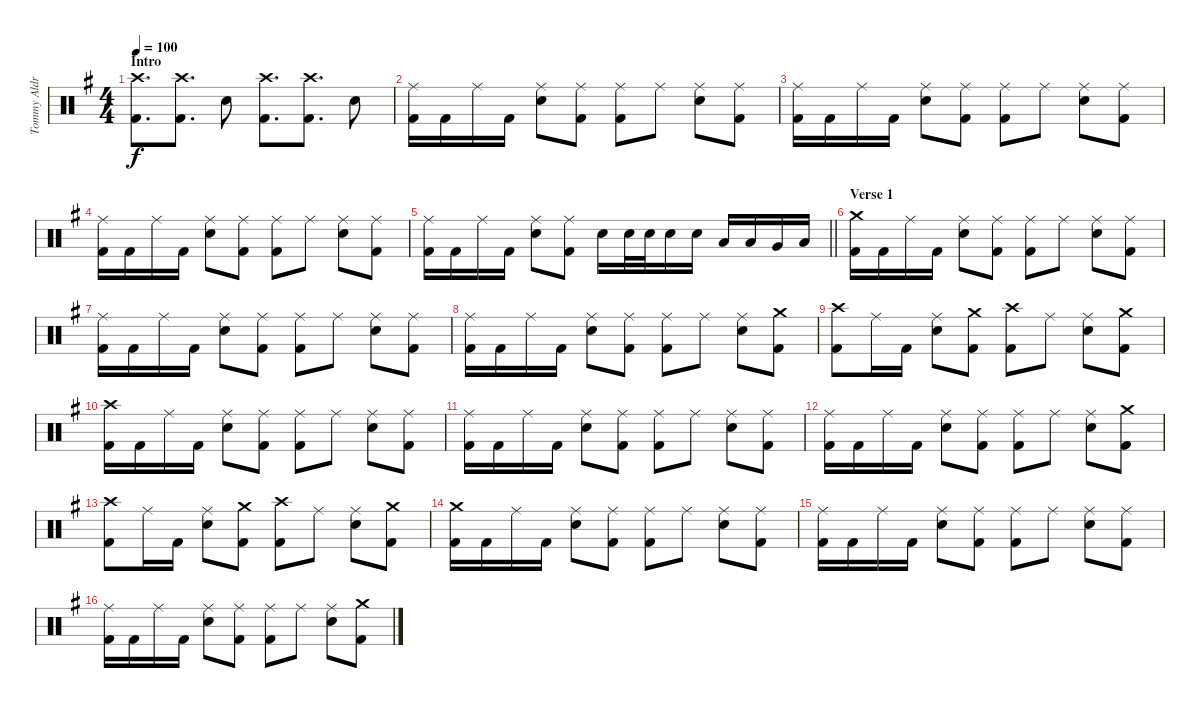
\track ("Tommy Aldridge" "Tommy Aldr") {instrument percussion}
\staff {score}
\articulation defaults
\ts (4 4)
\section ("" "Intro")
\tempo 100
\clef neutral
\ks eminor
("Crash high (hit)" "Kick (hit) 2").8{d dy f} ("Crash high (hit)" "Kick (hit) 2").8{d} "Electric Snare (hit)".8 ("Crash high (hit)" "Kick (hit) 2").8{d} ("Crash high (hit)" "Kick (hit) 2").8{d} "Electric Snare (hit)".8 |
("Ride (middle)" "Kick (hit) 2").16 "Kick (hit) 2".16 "Ride (middle)".16 "Kick (hit) 2".16 ("Ride (middle)" "Electric Snare (hit)").8 ("Ride (middle)" "Kick (hit) 2").8 ("Ride (middle)" "Kick (hit) 2").8 "Ride (middle)".8 ("Ride (middle)" "Electric Snare (hit)").8 ("Ride (middle)" "Kick (hit) 2").8 |
("Ride (middle)" "Kick (hit) 2").16 "Kick (hit) 2".16 "Ride (middle)".16 "Kick (hit) 2".16 ("Ride (middle)" "Electric Snare (hit)").8 ("Ride (middle)" "Kick (hit) 2").8 ("Ride (middle)" "Kick (hit) 2").8 "Ride (middle)".8 ("Ride (middle)" "Electric Snare (hit)").8 ("Ride (middle)" "Kick (hit) 2").8 |
("Ride (middle)" "Kick (hit) 2").16 "Kick (hit) 2".16 "Ride (middle)".16 "Kick (hit) 2".16 ("Ride (middle)" "Electric Snare (hit)").8 ("Ride (middle)" "Kick (hit) 2").8 ("Ride (middle)" "Kick (hit) 2").8 "Ride (middle)".8 ("Ride (middle)" "Electric Snare (hit)").8 ("Ride (middle)" "Kick (hit) 2").8 |
\barLineRight lightlight
("Ride (middle)" "Kick (hit) 2").16 "Kick (hit) 2".16 "Ride (middle)".16 "Kick (hit) 2".16 ("Ride (middle)" "Electric Snare (hit)").8 ("Ride (middle)" "Kick (hit) 2").8 "Electric Snare (hit)".16 "Electric Snare (hit)".32 "Electric Snare (hit)".32 "Electric Snare (hit)".16 "Electric Snare (hit)".16 "Low Tom (hit)".16 "Low Tom (hit)".16 "Very Low Tom (hit)".16 "Low Floor Tom (hit)".16 |
\section ("" "Verse 1")
("Crash medium (hit)" "Kick (hit) 2").16 "Kick (hit) 2".16 "Ride (middle)".16 "Kick (hit) 2".16 ("Ride (middle)" "Electric Snare (hit)").8 ("Ride (middle)" "Kick (hit) 2").8 ("Ride (middle)" "Kick (hit) 2").8 "Ride (middle)".8 ("Ride (middle)" "Electric Snare (hit)").8 ("Ride (middle)" "Kick (hit) 2").8 |
("Ride (middle)" "Kick (hit) 2").16 "Kick (hit) 2".16 "Ride (middle)".16 "Kick (hit) 2".16 ("Ride (middle)" "Electric Snare (hit)").8 ("Ride (middle)" "Kick (hit) 2").8 ("Ride (middle)" "Kick (hit) 2").8 "Ride (middle)".8 ("Ride (middle)" "Electric Snare (hit)").8 ("Ride (middle)" "Kick (hit) 2").8 |
("Ride (middle)" "Kick (hit) 2").16 "Kick (hit) 2".16 "Ride (middle)".16 "Kick (hit) 2".16 ("Ride (middle)" "Electric Snare (hit)").8 ("Ride (middle)" "Kick (hit) 2").8 ("Ride (middle)" "Kick (hit) 2").8 "Ride (middle)".8 ("Ride (middle)" "Electric Snare (hit)").8 ("Crash medium (hit)" "Kick (hit) 2").8 |
("Crash high (hit)" "Kick (hit) 2").8 "Ride (middle)".16 "Kick (hit) 2".16 ("Ride (middle)" "Electric Snare (hit)").8 ("Crash medium (hit)" "Kick (hit) 2").8 ("Crash high (hit)" "Kick (hit) 2").8 "Ride (middle)".8 ("Ride (middle)" "Electric Snare (hit)").8 ("Crash medium (hit)" "Kick (hit) 2").8 |
("Crash high (hit)" "Kick (hit) 2").16 "Kick (hit) 2".16 "Ride (middle)".16 "Kick (hit) 2".16 ("Ride (middle)" "Electric Snare (hit)").8 ("Ride (middle)" "Kick (hit) 2").8 ("Ride (middle)" "Kick (hit) 2").8 "Ride (middle)".8 ("Ride (middle)" "Electric Snare (hit)").8 ("Ride (middle)" "Kick (hit) 2").8 |
("Ride (middle)" "Kick (hit) 2").16 "Kick (hit) 2".16 "Ride (middle)".16 "Kick (hit) 2".16 ("Ride (middle)" "Electric Snare (hit)").8 ("Ride (middle)" "Kick (hit) 2").8 ("Ride (middle)" "Kick (hit) 2").8 "Ride (middle)".8 ("Ride (middle)" "Electric Snare (hit)").8 ("Ride (middle)" "Kick (hit) 2").8 |
("Ride (middle)" "Kick (hit) 2").16 "Kick (hit) 2".16 "Ride (middle)".16 "Kick (hit) 2".16 ("Ride (middle)" "Electric Snare (hit)").8 ("Ride (middle)" "Kick (hit) 2").8 ("Ride (middle)" "Kick (hit) 2").8 "Ride (middle)".8 ("Ride (middle)" "Electric Snare (hit)").8 ("Crash medium (hit)" "Kick (hit) 2").8 |
("Crash high (hit)" "Kick (hit) 2").8 "Ride (middle)".16 "Kick (hit) 2".16 ("Ride (middle)" "Electric Snare (hit)").8 ("Crash medium (hit)" "Kick (hit) 2").8 ("Crash high (hit)" "Kick (hit) 2").8 "Ride (middle)".8 ("Ride (middle)" "Electric Snare (hit)").8 ("Crash medium (hit)" "Kick (hit) 2").8 |
("Crash medium (hit)" "Kick (hit) 2").16 "Kick (hit) 2".16 "Ride (middle)".16 "Kick (hit) 2".16 ("Ride (middle)" "Electric Snare (hit)").8 ("Ride (middle)" "Kick (hit) 2").8 ("Ride (middle)" "Kick (hit) 2").8 "Ride (middle)".8 ("Ride (middle)" "Electric Snare (hit)").8 ("Ride (middle)" "Kick (hit) 2").8 |
("Ride (middle)" "Kick (hit) 2").16 "Kick (hit) 2".16 "Ride (middle)".16 "Kick (hit) 2".16 ("Ride (middle)" "Electric Snare (hit)").8 ("Ride (middle)" "Kick (hit) 2").8 ("Ride (middle)" "Kick (hit) 2").8 "Ride (middle)".8 ("Ride (middle)" "Electric Snare (hit)").8 ("Ride (middle)" "Kick (hit) 2").8 |
("Ride (middle)" "Kick (hit) 2").16 "Kick (hit) 2".16 "Ride (middle)".16 "Kick (hit) 2".16 ("Ride (middle)" "Electric Snare (hit)").8 ("Ride (middle)" "Kick (hit) 2").8 ("Ride (middle)" "Kick (hit) 2").8 "Ride (middle)".8 ("Ride (middle)" "Electric Snare (hit)").8 ("Crash medium (hit)" "Kick (hit) 2").8
